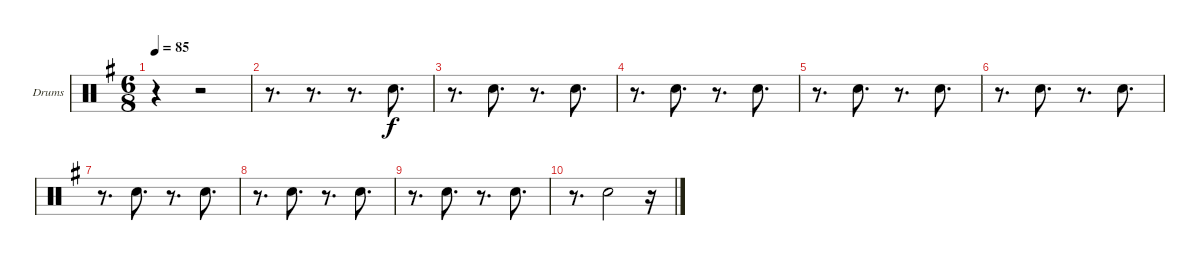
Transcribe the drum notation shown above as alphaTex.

\bracketExtendMode groupsimilarinstruments
\firstSystemTrackNameOrientation horizontal
\otherSystemsTrackNameOrientation horizontal
\track ("Drumkit" "Drums") {instrument percussion}
\staff {score}
\articulation defaults
\ts (6 8)
\tempo 85
\clef neutral
\ks g
r.4{dy f} r.2 |
r.8{d} r.8{d} r.8{d} "Snare (hit) 2".8{d} |
r.8{d} "Snare (hit) 2".8{d} r.8{d} "Snare (hit) 2".8{d} |
r.8{d} "Snare (hit) 2".8{d} r.8{d} "Snare (hit) 2".8{d} |
r.8{d} "Snare (hit) 2".8{d} r.8{d} "Snare (hit) 2".8{d} |
r.8{d} "Snare (hit) 2".8{d} r.8{d} "Snare (hit) 2".8{d} |
r.8{d} "Snare (hit) 2".8{d} r.8{d} "Snare (hit) 2".8{d} |
r.8{d} "Snare (hit) 2".8{d} r.8{d} "Snare (hit) 2".8{d} |
r.8{d} "Snare (hit) 2".8{d} r.8{d} "Snare (hit) 2".8{d} |
r.8{d} "Snare (hit) 2".2 r.16
